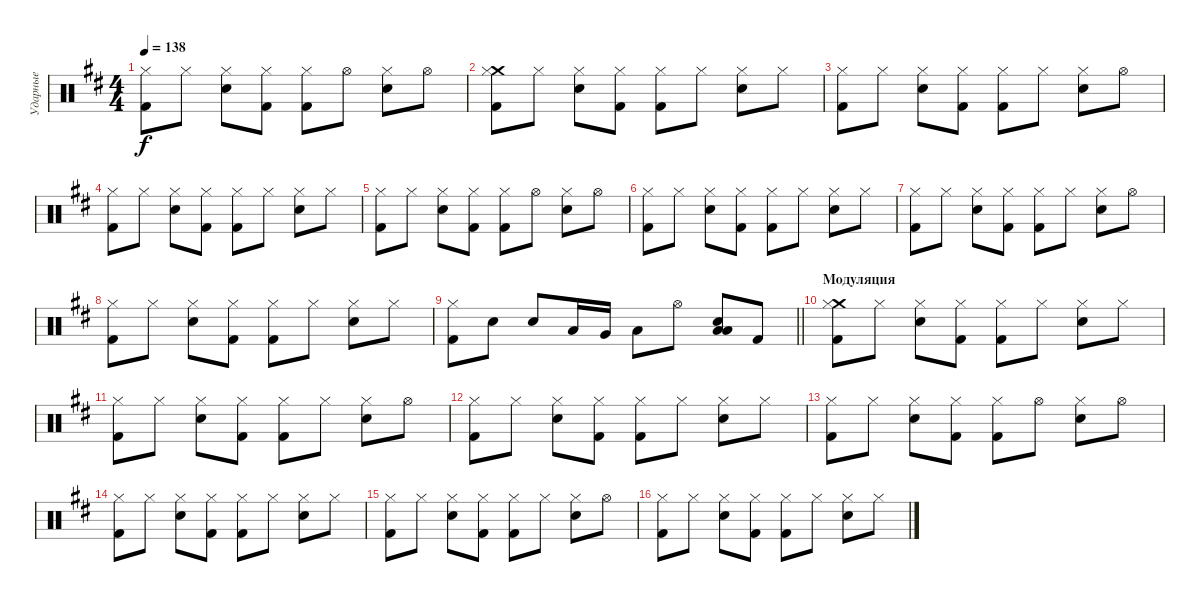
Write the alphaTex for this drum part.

\track ("Ударные" "Ударные") {instrument percussion}
\staff {score}
\articulation defaults
\ts (4 4)
\tempo 138
\clef neutral
\ks bminor
("Kick (hit) 2" "Hi-Hat (closed)").8{dy f} "Hi-Hat (closed)".8 ("Electric Snare (hit)" "Hi-Hat (closed)").8 ("Kick (hit) 2" "Hi-Hat (closed)").8 ("Kick (hit) 2" "Hi-Hat (closed)").8 "Hi-Hat (open)".8 ("Electric Snare (hit)" "Hi-Hat (closed)").8 "Hi-Hat (open)".8 |
("Crash medium (hit)" "Kick (hit) 2" "Hi-Hat (closed)").8 "Hi-Hat (closed)".8 ("Electric Snare (hit)" "Hi-Hat (closed)").8 ("Kick (hit) 2" "Hi-Hat (closed)").8 ("Kick (hit) 2" "Hi-Hat (closed)").8 "Hi-Hat (closed)".8 ("Electric Snare (hit)" "Hi-Hat (closed)").8 "Hi-Hat (closed)".8 |
("Kick (hit) 2" "Hi-Hat (closed)").8 "Hi-Hat (closed)".8 ("Electric Snare (hit)" "Hi-Hat (closed)").8 ("Kick (hit) 2" "Hi-Hat (closed)").8 ("Kick (hit) 2" "Hi-Hat (closed)").8 "Hi-Hat (closed)".8 ("Electric Snare (hit)" "Hi-Hat (closed)").8 "Hi-Hat (open)".8 |
("Kick (hit) 2" "Hi-Hat (closed)").8 "Hi-Hat (closed)".8 ("Electric Snare (hit)" "Hi-Hat (closed)").8 ("Kick (hit) 2" "Hi-Hat (closed)").8 ("Kick (hit) 2" "Hi-Hat (closed)").8 "Hi-Hat (closed)".8 ("Electric Snare (hit)" "Hi-Hat (closed)").8 "Hi-Hat (closed)".8 |
("Kick (hit) 2" "Hi-Hat (closed)").8 "Hi-Hat (closed)".8 ("Electric Snare (hit)" "Hi-Hat (closed)").8 ("Kick (hit) 2" "Hi-Hat (closed)").8 ("Kick (hit) 2" "Hi-Hat (closed)").8 "Hi-Hat (open)".8 ("Electric Snare (hit)" "Hi-Hat (closed)").8 "Hi-Hat (open)".8 |
("Kick (hit) 2" "Hi-Hat (closed)").8 "Hi-Hat (closed)".8 ("Electric Snare (hit)" "Hi-Hat (closed)").8 ("Kick (hit) 2" "Hi-Hat (closed)").8 ("Kick (hit) 2" "Hi-Hat (closed)").8 "Hi-Hat (closed)".8 ("Electric Snare (hit)" "Hi-Hat (closed)").8 "Hi-Hat (closed)".8 |
("Kick (hit) 2" "Hi-Hat (closed)").8 "Hi-Hat (closed)".8 ("Electric Snare (hit)" "Hi-Hat (closed)").8 ("Kick (hit) 2" "Hi-Hat (closed)").8 ("Kick (hit) 2" "Hi-Hat (closed)").8 "Hi-Hat (closed)".8 ("Electric Snare (hit)" "Hi-Hat (closed)").8 "Hi-Hat (open)".8 |
("Kick (hit) 2" "Hi-Hat (closed)").8 "Hi-Hat (closed)".8 ("Electric Snare (hit)" "Hi-Hat (closed)").8 ("Kick (hit) 2" "Hi-Hat (closed)").8 ("Kick (hit) 2" "Hi-Hat (closed)").8 "Hi-Hat (closed)".8 ("Electric Snare (hit)" "Hi-Hat (closed)").8 "Hi-Hat (closed)".8 |
\barLineRight lightlight
("Hi-Hat (closed)" "Kick (hit) 2").8 "Electric Snare (hit)".8 "Electric Snare (hit)".8 "Low Tom (hit)".16 "Very Low Tom (hit)".16 "Low Floor Tom (hit)".8 "Hi-Hat (open)".8 ("Low Floor Tom (hit)" "Electric Snare (hit)" "Low Tom (hit)").8 "Kick (hit) 2".8 |
\section ("" "Модуляция")
("Crash medium (hit)" "Kick (hit) 2" "Hi-Hat (closed)").8 "Hi-Hat (closed)".8 ("Electric Snare (hit)" "Hi-Hat (closed)").8 ("Kick (hit) 2" "Hi-Hat (closed)").8 ("Kick (hit) 2" "Hi-Hat (closed)").8 "Hi-Hat (closed)".8 ("Electric Snare (hit)" "Hi-Hat (closed)").8 "Hi-Hat (closed)".8 |
("Kick (hit) 2" "Hi-Hat (closed)").8 "Hi-Hat (closed)".8 ("Electric Snare (hit)" "Hi-Hat (closed)").8 ("Kick (hit) 2" "Hi-Hat (closed)").8 ("Kick (hit) 2" "Hi-Hat (closed)").8 "Hi-Hat (closed)".8 ("Electric Snare (hit)" "Hi-Hat (closed)").8 "Hi-Hat (open)".8 |
("Kick (hit) 2" "Hi-Hat (closed)").8 "Hi-Hat (closed)".8 ("Electric Snare (hit)" "Hi-Hat (closed)").8 ("Kick (hit) 2" "Hi-Hat (closed)").8 ("Kick (hit) 2" "Hi-Hat (closed)").8 "Hi-Hat (closed)".8 ("Electric Snare (hit)" "Hi-Hat (closed)").8 "Hi-Hat (closed)".8 |
("Kick (hit) 2" "Hi-Hat (closed)").8 "Hi-Hat (closed)".8 ("Electric Snare (hit)" "Hi-Hat (closed)").8 ("Kick (hit) 2" "Hi-Hat (closed)").8 ("Kick (hit) 2" "Hi-Hat (closed)").8 "Hi-Hat (open)".8 ("Electric Snare (hit)" "Hi-Hat (closed)").8 "Hi-Hat (open)".8 |
("Kick (hit) 2" "Hi-Hat (closed)").8 "Hi-Hat (closed)".8 ("Electric Snare (hit)" "Hi-Hat (closed)").8 ("Kick (hit) 2" "Hi-Hat (closed)").8 ("Kick (hit) 2" "Hi-Hat (closed)").8 "Hi-Hat (closed)".8 ("Electric Snare (hit)" "Hi-Hat (closed)").8 "Hi-Hat (closed)".8 |
("Kick (hit) 2" "Hi-Hat (closed)").8 "Hi-Hat (closed)".8 ("Electric Snare (hit)" "Hi-Hat (closed)").8 ("Kick (hit) 2" "Hi-Hat (closed)").8 ("Kick (hit) 2" "Hi-Hat (closed)").8 "Hi-Hat (closed)".8 ("Electric Snare (hit)" "Hi-Hat (closed)").8 "Hi-Hat (open)".8 |
("Kick (hit) 2" "Hi-Hat (closed)").8 "Hi-Hat (closed)".8 ("Electric Snare (hit)" "Hi-Hat (closed)").8 ("Kick (hit) 2" "Hi-Hat (closed)").8 ("Kick (hit) 2" "Hi-Hat (closed)").8 "Hi-Hat (closed)".8 ("Electric Snare (hit)" "Hi-Hat (closed)").8 "Hi-Hat (closed)".8
